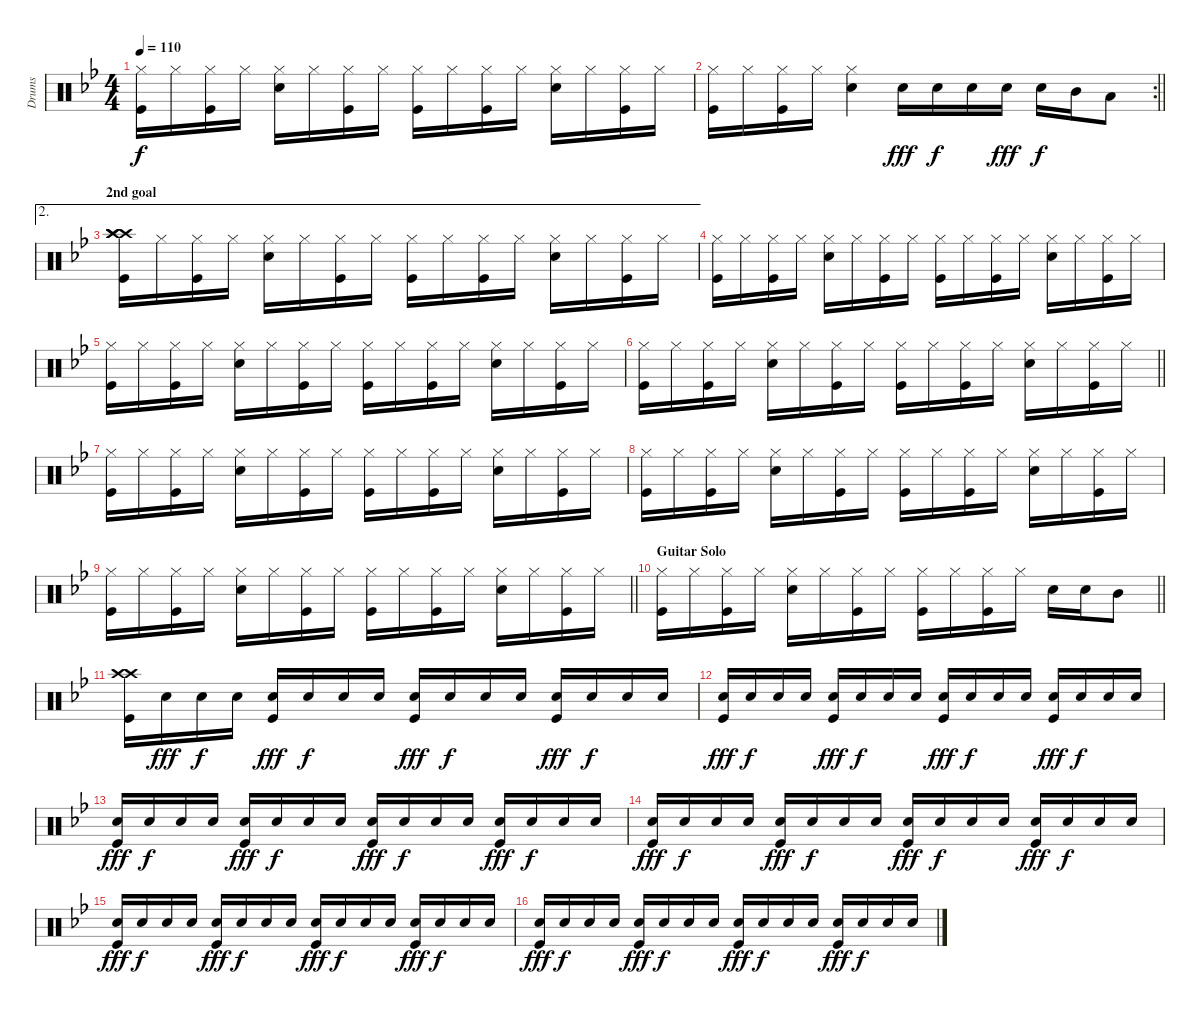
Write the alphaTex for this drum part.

\track ("Drums" "Drums") {instrument percussion}
\staff {score}
\articulation defaults
\ts (4 4)
\tempo 110
\clef neutral
\ks bb
("Hi-Hat (closed)" "Kick (hit)").16{dy f} "Hi-Hat (closed)".16 ("Hi-Hat (closed)" "Kick (hit)").16 "Hi-Hat (closed)".16 ("Hi-Hat (closed)" "Snare (hit) 2").16 "Hi-Hat (closed)".16 ("Hi-Hat (closed)" "Kick (hit)").16 "Hi-Hat (closed)".16 ("Hi-Hat (closed)" "Kick (hit)").16 "Hi-Hat (closed)".16 ("Hi-Hat (closed)" "Kick (hit)").16 "Hi-Hat (closed)".16 ("Hi-Hat (closed)" "Snare (hit) 2").16 "Hi-Hat (closed)".16 ("Hi-Hat (closed)" "Kick (hit)").16 "Hi-Hat (closed)".16 |
\rc 2
\barLineRight lightlight
("Hi-Hat (closed)" "Kick (hit)").16 "Hi-Hat (closed)".16 ("Hi-Hat (closed)" "Kick (hit)").16 "Hi-Hat (closed)".16 ("Hi-Hat (closed)" "Snare (hit) 2").4 "Snare (hit) 2".16{dy fff} "Snare (hit) 2".16{dy f} "Snare (hit) 2".16 "Snare (hit) 2".16{dy fff} "Snare (hit) 2".16{dy f} "Mid Tom (hit)".16 "Low Tom (hit)".8 |
\ae 2
\section ("" "2nd goal")
("Crash high (hit)" "Crash high (hit)" "Crash high (hit)" "Kick (hit)").16 "Hi-Hat (closed)".16 ("Hi-Hat (closed)" "Kick (hit)").16 "Hi-Hat (closed)".16 ("Hi-Hat (closed)" "Snare (hit) 2").16 "Hi-Hat (closed)".16 ("Hi-Hat (closed)" "Kick (hit)").16 "Hi-Hat (closed)".16 ("Hi-Hat (closed)" "Kick (hit)").16 "Hi-Hat (closed)".16 ("Hi-Hat (closed)" "Kick (hit)").16 "Hi-Hat (closed)".16 ("Hi-Hat (closed)" "Snare (hit) 2").16 "Hi-Hat (closed)".16 ("Hi-Hat (closed)" "Kick (hit)").16 "Hi-Hat (closed)".16 |
("Hi-Hat (closed)" "Kick (hit)").16 "Hi-Hat (closed)".16 ("Hi-Hat (closed)" "Kick (hit)").16 "Hi-Hat (closed)".16 ("Hi-Hat (closed)" "Snare (hit) 2").16 "Hi-Hat (closed)".16 ("Hi-Hat (closed)" "Kick (hit)").16 "Hi-Hat (closed)".16 ("Hi-Hat (closed)" "Kick (hit)").16 "Hi-Hat (closed)".16 ("Hi-Hat (closed)" "Kick (hit)").16 "Hi-Hat (closed)".16 ("Hi-Hat (closed)" "Snare (hit) 2").16 "Hi-Hat (closed)".16 ("Hi-Hat (closed)" "Kick (hit)").16 "Hi-Hat (closed)".16 |
("Hi-Hat (closed)" "Kick (hit)").16 "Hi-Hat (closed)".16 ("Hi-Hat (closed)" "Kick (hit)").16 "Hi-Hat (closed)".16 ("Hi-Hat (closed)" "Snare (hit) 2").16 "Hi-Hat (closed)".16 ("Hi-Hat (closed)" "Kick (hit)").16 "Hi-Hat (closed)".16 ("Hi-Hat (closed)" "Kick (hit)").16 "Hi-Hat (closed)".16 ("Hi-Hat (closed)" "Kick (hit)").16 "Hi-Hat (closed)".16 ("Hi-Hat (closed)" "Snare (hit) 2").16 "Hi-Hat (closed)".16 ("Hi-Hat (closed)" "Kick (hit)").16 "Hi-Hat (closed)".16 |
\barLineRight lightlight
("Hi-Hat (closed)" "Kick (hit)").16 "Hi-Hat (closed)".16 ("Hi-Hat (closed)" "Kick (hit)").16 "Hi-Hat (closed)".16 ("Hi-Hat (closed)" "Snare (hit) 2").16 "Hi-Hat (closed)".16 ("Hi-Hat (closed)" "Kick (hit)").16 "Hi-Hat (closed)".16 ("Hi-Hat (closed)" "Kick (hit)").16 "Hi-Hat (closed)".16 ("Hi-Hat (closed)" "Kick (hit)").16 "Hi-Hat (closed)".16 ("Hi-Hat (closed)" "Snare (hit) 2").16 "Hi-Hat (closed)".16 ("Hi-Hat (closed)" "Kick (hit)").16 "Hi-Hat (closed)".16 |
("Hi-Hat (closed)" "Kick (hit)").16 "Hi-Hat (closed)".16 ("Hi-Hat (closed)" "Kick (hit)").16 "Hi-Hat (closed)".16 ("Hi-Hat (closed)" "Snare (hit) 2").16 "Hi-Hat (closed)".16 ("Hi-Hat (closed)" "Kick (hit)").16 "Hi-Hat (closed)".16 ("Hi-Hat (closed)" "Kick (hit)").16 "Hi-Hat (closed)".16 ("Hi-Hat (closed)" "Kick (hit)").16 "Hi-Hat (closed)".16 ("Hi-Hat (closed)" "Snare (hit) 2").16 "Hi-Hat (closed)".16 ("Hi-Hat (closed)" "Kick (hit)").16 "Hi-Hat (closed)".16 |
("Hi-Hat (closed)" "Kick (hit)").16 "Hi-Hat (closed)".16 ("Hi-Hat (closed)" "Kick (hit)").16 "Hi-Hat (closed)".16 ("Hi-Hat (closed)" "Snare (hit) 2").16 "Hi-Hat (closed)".16 ("Hi-Hat (closed)" "Kick (hit)").16 "Hi-Hat (closed)".16 ("Hi-Hat (closed)" "Kick (hit)").16 "Hi-Hat (closed)".16 ("Hi-Hat (closed)" "Kick (hit)").16 "Hi-Hat (closed)".16 ("Hi-Hat (closed)" "Snare (hit) 2").16 "Hi-Hat (closed)".16 ("Hi-Hat (closed)" "Kick (hit)").16 "Hi-Hat (closed)".16 |
\barLineRight lightlight
("Hi-Hat (closed)" "Kick (hit)").16 "Hi-Hat (closed)".16 ("Hi-Hat (closed)" "Kick (hit)").16 "Hi-Hat (closed)".16 ("Hi-Hat (closed)" "Snare (hit) 2").16 "Hi-Hat (closed)".16 ("Hi-Hat (closed)" "Kick (hit)").16 "Hi-Hat (closed)".16 ("Hi-Hat (closed)" "Kick (hit)").16 "Hi-Hat (closed)".16 ("Hi-Hat (closed)" "Kick (hit)").16 "Hi-Hat (closed)".16 ("Hi-Hat (closed)" "Snare (hit) 2").16 "Hi-Hat (closed)".16 ("Hi-Hat (closed)" "Kick (hit)").16 "Hi-Hat (closed)".16 |
\section ("" "Guitar Solo")
\barLineRight lightlight
("Hi-Hat (closed)" "Kick (hit)").16 "Hi-Hat (closed)".16 ("Hi-Hat (closed)" "Kick (hit)").16 "Hi-Hat (closed)".16 ("Hi-Hat (closed)" "Snare (hit) 2").16 "Hi-Hat (closed)".16 ("Hi-Hat (closed)" "Kick (hit)").16 "Hi-Hat (closed)".16 ("Hi-Hat (closed)" "Kick (hit)").16 "Hi-Hat (closed)".16 ("Hi-Hat (closed)" "Kick (hit)").16 "Hi-Hat (closed)".16 "Snare (hit) 2".16 "Snare (hit) 2".16 "Mid Tom (hit)".8 |
("Crash high (hit)" "Crash high (hit)" "Kick (hit)").16 "Snare (hit) 2".16{dy fff volume 7} "Snare (hit) 2".16{dy f} "Snare (hit) 2".16 ("Snare (hit) 2" "Kick (hit)").16{dy fff} "Snare (hit) 2".16{dy f} "Snare (hit) 2".16 "Snare (hit) 2".16 ("Snare (hit) 2" "Kick (hit)").16{dy fff} "Snare (hit) 2".16{dy f} "Snare (hit) 2".16 "Snare (hit) 2".16 ("Snare (hit) 2" "Kick (hit)").16{dy fff} "Snare (hit) 2".16{dy f} "Snare (hit) 2".16 "Snare (hit) 2".16 |
("Snare (hit) 2" "Kick (hit)").16{dy fff} "Snare (hit) 2".16{dy f} "Snare (hit) 2".16 "Snare (hit) 2".16 ("Snare (hit) 2" "Kick (hit)").16{dy fff} "Snare (hit) 2".16{dy f} "Snare (hit) 2".16 "Snare (hit) 2".16 ("Snare (hit) 2" "Kick (hit)").16{dy fff} "Snare (hit) 2".16{dy f} "Snare (hit) 2".16 "Snare (hit) 2".16 ("Snare (hit) 2" "Kick (hit)").16{dy fff} "Snare (hit) 2".16{dy f} "Snare (hit) 2".16 "Snare (hit) 2".16 |
("Snare (hit) 2" "Kick (hit)").16{dy fff} "Snare (hit) 2".16{dy f} "Snare (hit) 2".16 "Snare (hit) 2".16 ("Snare (hit) 2" "Kick (hit)").16{dy fff} "Snare (hit) 2".16{dy f} "Snare (hit) 2".16 "Snare (hit) 2".16 ("Snare (hit) 2" "Kick (hit)").16{dy fff} "Snare (hit) 2".16{dy f} "Snare (hit) 2".16 "Snare (hit) 2".16 ("Snare (hit) 2" "Kick (hit)").16{dy fff} "Snare (hit) 2".16{dy f} "Snare (hit) 2".16 "Snare (hit) 2".16 |
("Snare (hit) 2" "Kick (hit)").16{dy fff} "Snare (hit) 2".16{dy f} "Snare (hit) 2".16 "Snare (hit) 2".16 ("Snare (hit) 2" "Kick (hit)").16{dy fff} "Snare (hit) 2".16{dy f} "Snare (hit) 2".16 "Snare (hit) 2".16 ("Snare (hit) 2" "Kick (hit)").16{dy fff} "Snare (hit) 2".16{dy f} "Snare (hit) 2".16 "Snare (hit) 2".16 ("Snare (hit) 2" "Kick (hit)").16{dy fff} "Snare (hit) 2".16{dy f} "Snare (hit) 2".16 "Snare (hit) 2".16 |
("Snare (hit) 2" "Kick (hit)").16{dy fff} "Snare (hit) 2".16{dy f} "Snare (hit) 2".16 "Snare (hit) 2".16 ("Snare (hit) 2" "Kick (hit)").16{dy fff} "Snare (hit) 2".16{dy f} "Snare (hit) 2".16 "Snare (hit) 2".16 ("Snare (hit) 2" "Kick (hit)").16{dy fff} "Snare (hit) 2".16{dy f} "Snare (hit) 2".16 "Snare (hit) 2".16 ("Snare (hit) 2" "Kick (hit)").16{dy fff} "Snare (hit) 2".16{dy f} "Snare (hit) 2".16 "Snare (hit) 2".16 |
("Snare (hit) 2" "Kick (hit)").16{dy fff} "Snare (hit) 2".16{dy f} "Snare (hit) 2".16 "Snare (hit) 2".16 ("Snare (hit) 2" "Kick (hit)").16{dy fff} "Snare (hit) 2".16{dy f} "Snare (hit) 2".16 "Snare (hit) 2".16 ("Snare (hit) 2" "Kick (hit)").16{dy fff} "Snare (hit) 2".16{dy f} "Snare (hit) 2".16 "Snare (hit) 2".16 ("Snare (hit) 2" "Kick (hit)").16{dy fff} "Snare (hit) 2".16{dy f} "Snare (hit) 2".16 "Snare (hit) 2".16
